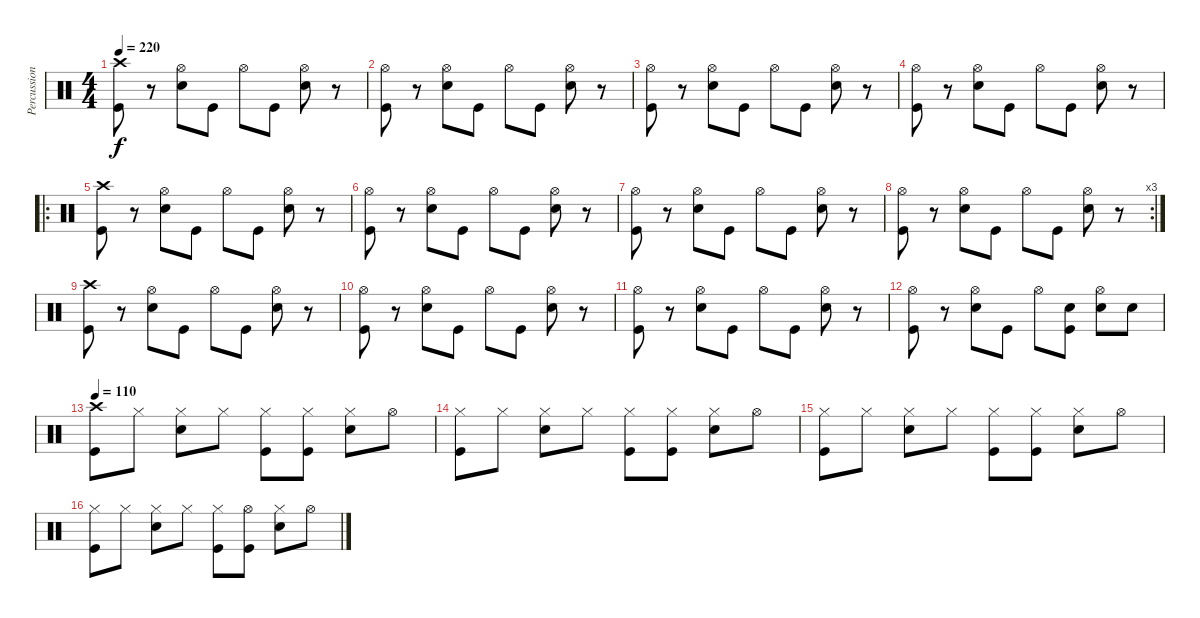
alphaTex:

\track ("Percussion" "Percussion") {instrument percussion}
\staff {score}
\articulation defaults
\ts (4 4)
\tempo 220
\clef neutral
\ks c
("Crash high (hit)" "Kick (hit)").8{dy f} r.8 ("Snare (hit) 2" "Hi-Hat (open)").8 "Kick (hit)".8 "Hi-Hat (open)".8 "Kick (hit)".8 ("Snare (hit) 2" "Hi-Hat (open)").8 r.8 |
("Hi-Hat (open)" "Kick (hit)").8 r.8 ("Snare (hit) 2" "Hi-Hat (open)").8 "Kick (hit)".8 "Hi-Hat (open)".8 "Kick (hit)".8 ("Snare (hit) 2" "Hi-Hat (open)").8 r.8 |
("Hi-Hat (open)" "Kick (hit)").8 r.8 ("Snare (hit) 2" "Hi-Hat (open)").8 "Kick (hit)".8 "Hi-Hat (open)".8 "Kick (hit)".8 ("Snare (hit) 2" "Hi-Hat (open)").8 r.8 |
("Hi-Hat (open)" "Kick (hit)").8 r.8 ("Snare (hit) 2" "Hi-Hat (open)").8 "Kick (hit)".8 "Hi-Hat (open)".8 "Kick (hit)".8 ("Snare (hit) 2" "Hi-Hat (open)").8 r.8 |
\ro
("Crash high (hit)" "Kick (hit)").8 r.8 ("Snare (hit) 2" "Hi-Hat (open)").8 "Kick (hit)".8 "Hi-Hat (open)".8 "Kick (hit)".8 ("Snare (hit) 2" "Hi-Hat (open)").8 r.8 |
("Hi-Hat (open)" "Kick (hit)").8 r.8 ("Snare (hit) 2" "Hi-Hat (open)").8 "Kick (hit)".8 "Hi-Hat (open)".8 "Kick (hit)".8 ("Snare (hit) 2" "Hi-Hat (open)").8 r.8 |
("Hi-Hat (open)" "Kick (hit)").8 r.8 ("Snare (hit) 2" "Hi-Hat (open)").8 "Kick (hit)".8 "Hi-Hat (open)".8 "Kick (hit)".8 ("Snare (hit) 2" "Hi-Hat (open)").8 r.8 |
\rc 3
("Hi-Hat (open)" "Kick (hit)").8 r.8 ("Snare (hit) 2" "Hi-Hat (open)").8 "Kick (hit)".8 "Hi-Hat (open)".8 "Kick (hit)".8 ("Snare (hit) 2" "Hi-Hat (open)").8 r.8 |
("Crash high (hit)" "Kick (hit)").8 r.8 ("Snare (hit) 2" "Hi-Hat (open)").8 "Kick (hit)".8 "Hi-Hat (open)".8 "Kick (hit)".8 ("Snare (hit) 2" "Hi-Hat (open)").8 r.8 |
("Hi-Hat (open)" "Kick (hit)").8 r.8 ("Snare (hit) 2" "Hi-Hat (open)").8 "Kick (hit)".8 "Hi-Hat (open)".8 "Kick (hit)".8 ("Snare (hit) 2" "Hi-Hat (open)").8 r.8 |
("Hi-Hat (open)" "Kick (hit)").8 r.8 ("Snare (hit) 2" "Hi-Hat (open)").8 "Kick (hit)".8 "Hi-Hat (open)".8 "Kick (hit)".8 ("Snare (hit) 2" "Hi-Hat (open)").8 r.8 |
("Hi-Hat (open)" "Kick (hit)").8 r.8 ("Snare (hit) 2" "Hi-Hat (open)").8 "Kick (hit)".8 "Hi-Hat (open)".8 ("Kick (hit)" "Snare (hit) 2").8 ("Snare (hit) 2" "Hi-Hat (open)").8 "Snare (hit) 2".8 |
\tempo 130
\tempo 110
("Kick (hit)" "Crash high (hit)").8 "Hi-Hat (closed)".8 ("Snare (hit) 2" "Hi-Hat (closed)").8 "Hi-Hat (closed)".8 ("Kick (hit)" "Hi-Hat (closed)").8 ("Kick (hit)" "Hi-Hat (closed)").8 ("Snare (hit) 2" "Hi-Hat (closed)").8 "Hi-Hat (open)".8 |
("Kick (hit)" "Hi-Hat (closed)").8 "Hi-Hat (closed)".8 ("Snare (hit) 2" "Hi-Hat (closed)").8 "Hi-Hat (closed)".8 ("Kick (hit)" "Hi-Hat (closed)").8 ("Kick (hit)" "Hi-Hat (closed)").8 ("Snare (hit) 2" "Hi-Hat (closed)").8 "Hi-Hat (open)".8 |
("Kick (hit)" "Hi-Hat (closed)").8 "Hi-Hat (closed)".8 ("Snare (hit) 2" "Hi-Hat (closed)").8 "Hi-Hat (closed)".8 ("Kick (hit)" "Hi-Hat (closed)").8 ("Kick (hit)" "Hi-Hat (closed)").8 ("Snare (hit) 2" "Hi-Hat (closed)").8 "Hi-Hat (open)".8 |
("Kick (hit)" "Hi-Hat (closed)").8 "Hi-Hat (closed)".8 ("Snare (hit) 2" "Hi-Hat (closed)").8 "Hi-Hat (closed)".8 ("Kick (hit)" "Hi-Hat (closed)").8 ("Kick (hit)" "Hi-Hat (open)").8 ("Snare (hit) 2" "Hi-Hat (closed)").8 "Hi-Hat (open)".8
